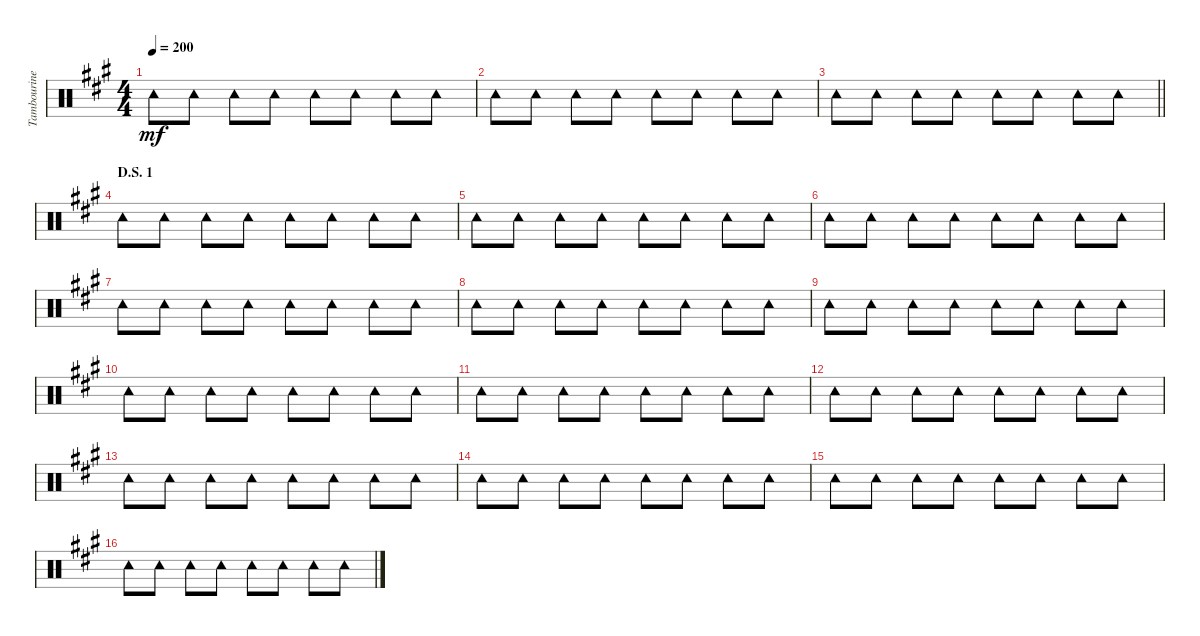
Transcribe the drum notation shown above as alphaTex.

\track ("Tambourine" "Tambourine") {instrument percussion}
\staff {score}
\articulation defaults
\ts (4 4)
\tempo 200
\clef neutral
\ks a "Tambourine (hit)".8{dy mf} "Tambourine (hit)".8 "Tambourine (hit)".8 "Tambourine (hit)".8 "Tambourine (hit)".8 "Tambourine (hit)".8 "Tambourine (hit)".8 "Tambourine (hit)".8
|
"Tambourine (hit)".8 "Tambourine (hit)".8 "Tambourine (hit)".8 "Tambourine (hit)".8 "Tambourine (hit)".8 "Tambourine (hit)".8 "Tambourine (hit)".8 "Tambourine (hit)".8 |
\barLineRight lightlight "Tambourine (hit)".8 "Tambourine (hit)".8 "Tambourine (hit)".8 "Tambourine (hit)".8 "Tambourine (hit)".8 "Tambourine (hit)".8 "Tambourine (hit)".8 "Tambourine (hit)".8
|
\section ("" "D.S. 1")
"Tambourine (hit)".8 "Tambourine (hit)".8 "Tambourine (hit)".8 "Tambourine (hit)".8 "Tambourine (hit)".8 "Tambourine (hit)".8 "Tambourine (hit)".8 "Tambourine (hit)".8 |
"Tambourine (hit)".8 "Tambourine (hit)".8 "Tambourine (hit)".8 "Tambourine (hit)".8 "Tambourine (hit)".8 "Tambourine (hit)".8 "Tambourine (hit)".8 "Tambourine (hit)".8 |
"Tambourine (hit)".8 "Tambourine (hit)".8 "Tambourine (hit)".8 "Tambourine (hit)".8 "Tambourine (hit)".8 "Tambourine (hit)".8 "Tambourine (hit)".8 "Tambourine (hit)".8 |
"Tambourine (hit)".8 "Tambourine (hit)".8 "Tambourine (hit)".8 "Tambourine (hit)".8 "Tambourine (hit)".8 "Tambourine (hit)".8 "Tambourine (hit)".8 "Tambourine (hit)".8 |
"Tambourine (hit)".8 "Tambourine (hit)".8 "Tambourine (hit)".8 "Tambourine (hit)".8 "Tambourine (hit)".8 "Tambourine (hit)".8 "Tambourine (hit)".8 "Tambourine (hit)".8 |
"Tambourine (hit)".8 "Tambourine (hit)".8 "Tambourine (hit)".8 "Tambourine (hit)".8 "Tambourine (hit)".8 "Tambourine (hit)".8 "Tambourine (hit)".8 "Tambourine (hit)".8 |
"Tambourine (hit)".8 "Tambourine (hit)".8 "Tambourine (hit)".8 "Tambourine (hit)".8 "Tambourine (hit)".8 "Tambourine (hit)".8 "Tambourine (hit)".8 "Tambourine (hit)".8 |
"Tambourine (hit)".8 "Tambourine (hit)".8 "Tambourine (hit)".8 "Tambourine (hit)".8 "Tambourine (hit)".8 "Tambourine (hit)".8 "Tambourine (hit)".8 "Tambourine (hit)".8 |
"Tambourine (hit)".8 "Tambourine (hit)".8 "Tambourine (hit)".8 "Tambourine (hit)".8 "Tambourine (hit)".8 "Tambourine (hit)".8 "Tambourine (hit)".8 "Tambourine (hit)".8 |
"Tambourine (hit)".8 "Tambourine (hit)".8 "Tambourine (hit)".8 "Tambourine (hit)".8 "Tambourine (hit)".8 "Tambourine (hit)".8 "Tambourine (hit)".8 "Tambourine (hit)".8 |
"Tambourine (hit)".8 "Tambourine (hit)".8 "Tambourine (hit)".8 "Tambourine (hit)".8 "Tambourine (hit)".8 "Tambourine (hit)".8 "Tambourine (hit)".8 "Tambourine (hit)".8 |
"Tambourine (hit)".8 "Tambourine (hit)".8 "Tambourine (hit)".8 "Tambourine (hit)".8 "Tambourine (hit)".8 "Tambourine (hit)".8 "Tambourine (hit)".8 "Tambourine (hit)".8 |
"Tambourine (hit)".8 "Tambourine (hit)".8 "Tambourine (hit)".8 "Tambourine (hit)".8 "Tambourine (hit)".8 "Tambourine (hit)".8 "Tambourine (hit)".8 "Tambourine (hit)".8
